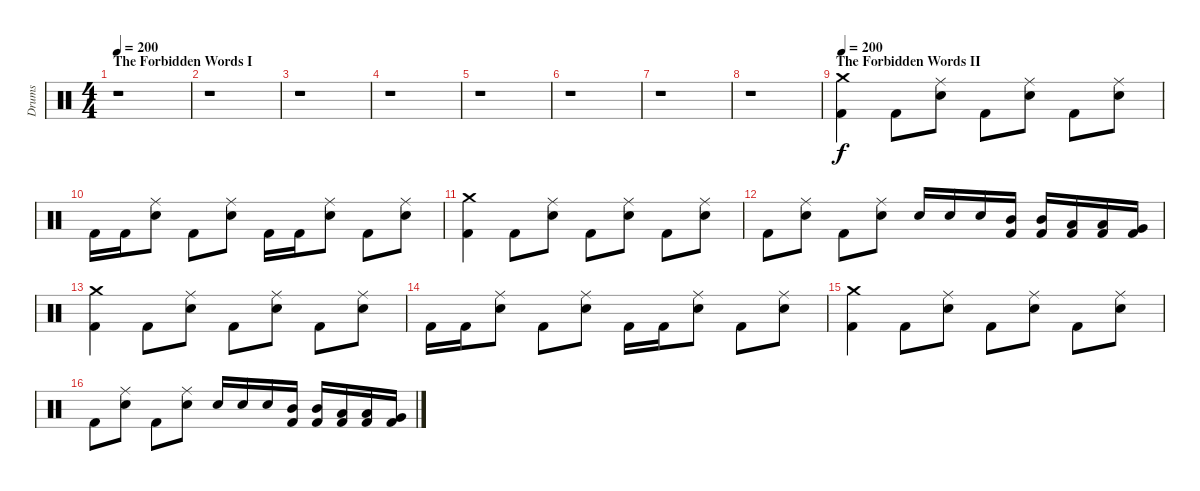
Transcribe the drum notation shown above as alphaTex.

\track ("Drums" "Drums") {instrument percussion}
\staff {score}
\articulation defaults
\ts (4 4)
\section ("" "The Forbidden Words I")
\tempo 200
\tempo 100
\tempo 200
\clef neutral
\ks c
r.1{dy f} |
r.1 |
r.1 |
r.1 |
r.1 |
r.1 |
r.1 |
r.1 |
\section ("" "The Forbidden Words II")
\tempo 200
("Crash medium (hit)" "Kick (hit) 2").4 "Kick (hit) 2".8 ("Ride (middle)" "Electric Snare (hit)").8 "Kick (hit) 2".8 ("Ride (middle)" "Electric Snare (hit)").8 "Kick (hit) 2".8 ("Ride (middle)" "Electric Snare (hit)").8 |
"Kick (hit) 2".16 "Kick (hit) 2".16 ("Ride (middle)" "Electric Snare (hit)").8 "Kick (hit) 2".8 ("Ride (middle)" "Electric Snare (hit)").8 "Kick (hit) 2".16 "Kick (hit) 2".16 ("Ride (middle)" "Electric Snare (hit)").8 "Kick (hit) 2".8 ("Ride (middle)" "Electric Snare (hit)").8 |
("Crash medium (hit)" "Kick (hit) 2").4 "Kick (hit) 2".8 ("Ride (middle)" "Electric Snare (hit)").8 "Kick (hit) 2".8 ("Ride (middle)" "Electric Snare (hit)").8 "Kick (hit) 2".8 ("Ride (middle)" "Electric Snare (hit)").8 |
"Kick (hit) 2".8 ("Ride (middle)" "Electric Snare (hit)").8 "Kick (hit) 2".8 ("Ride (middle)" "Electric Snare (hit)").8 "Electric Snare (hit)".16 "Electric Snare (hit)".16 "Electric Snare (hit)".16 ("Mid Tom (hit)" "Kick (hit) 2").16 ("Mid Tom (hit)" "Kick (hit) 2").16 ("Low Tom (hit)" "Kick (hit) 2").16 ("Low Tom (hit)" "Kick (hit) 2").16 ("Very Low Tom (hit)" "Kick (hit) 2").16 |
("Crash medium (hit)" "Kick (hit) 2").4 "Kick (hit) 2".8 ("Ride (middle)" "Electric Snare (hit)").8 "Kick (hit) 2".8 ("Ride (middle)" "Electric Snare (hit)").8 "Kick (hit) 2".8 ("Ride (middle)" "Electric Snare (hit)").8 |
"Kick (hit) 2".16 "Kick (hit) 2".16 ("Ride (middle)" "Electric Snare (hit)").8 "Kick (hit) 2".8 ("Ride (middle)" "Electric Snare (hit)").8 "Kick (hit) 2".16 "Kick (hit) 2".16 ("Ride (middle)" "Electric Snare (hit)").8 "Kick (hit) 2".8 ("Ride (middle)" "Electric Snare (hit)").8 |
("Crash medium (hit)" "Kick (hit) 2").4 "Kick (hit) 2".8 ("Ride (middle)" "Electric Snare (hit)").8 "Kick (hit) 2".8 ("Ride (middle)" "Electric Snare (hit)").8 "Kick (hit) 2".8 ("Ride (middle)" "Electric Snare (hit)").8 |
"Kick (hit) 2".8 ("Ride (middle)" "Electric Snare (hit)").8 "Kick (hit) 2".8 ("Ride (middle)" "Electric Snare (hit)").8 "Electric Snare (hit)".16 "Electric Snare (hit)".16 "Electric Snare (hit)".16 ("Mid Tom (hit)" "Kick (hit) 2").16 ("Mid Tom (hit)" "Kick (hit) 2").16 ("Low Tom (hit)" "Kick (hit) 2").16 ("Low Tom (hit)" "Kick (hit) 2").16 ("Very Low Tom (hit)" "Kick (hit) 2").16
